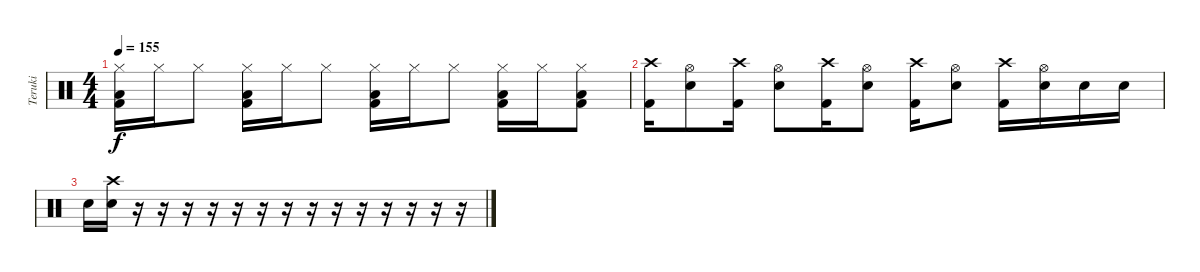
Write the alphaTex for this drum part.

\track ("Teruki" "Teruki") {instrument percussion}
\staff {score}
\articulation defaults
\ts (4 4)
\tempo 155
\clef neutral
\ks c
("Hi-Hat (closed)" "Kick (hit) 2" "Low Tom (hit)").16{dy f} "Hi-Hat (closed)".16 "Hi-Hat (closed)".8 ("Hi-Hat (closed)" "Kick (hit) 2" "Low Tom (hit)").16 "Hi-Hat (closed)".16 "Hi-Hat (closed)".8 ("Hi-Hat (closed)" "Kick (hit) 2" "Low Tom (hit)").16 "Hi-Hat (closed)".16 "Hi-Hat (closed)".8 ("Hi-Hat (closed)" "Kick (hit) 2" "Low Tom (hit)").16 "Hi-Hat (closed)".16 ("Hi-Hat (closed)" "Kick (hit) 2" "Low Tom (hit)").8 |
("Crash high (hit)" "Kick (hit) 2").16 ("Hi-Hat (open)" "Snare (hit) 2").8 ("Crash high (hit)" "Kick (hit) 2").16 ("Hi-Hat (open)" "Snare (hit) 2").8 ("Crash high (hit)" "Kick (hit) 2").16 ("Hi-Hat (open)" "Snare (hit) 2").8 ("Crash high (hit)" "Kick (hit) 2").16 ("Hi-Hat (open)" "Snare (hit) 2").8 ("Crash high (hit)" "Kick (hit) 2").16 ("Hi-Hat (open)" "Snare (hit) 2").16 "Snare (hit) 2".16 "Snare (hit) 2".16 |
"Snare (hit) 2".16 ("Crash high (hit)" "Snare (hit) 2").16 r.16 r.16 r.16 r.16 r.16 r.16 r.16 r.16 r.16 r.16 r.16 r.16 r.16 r.16
